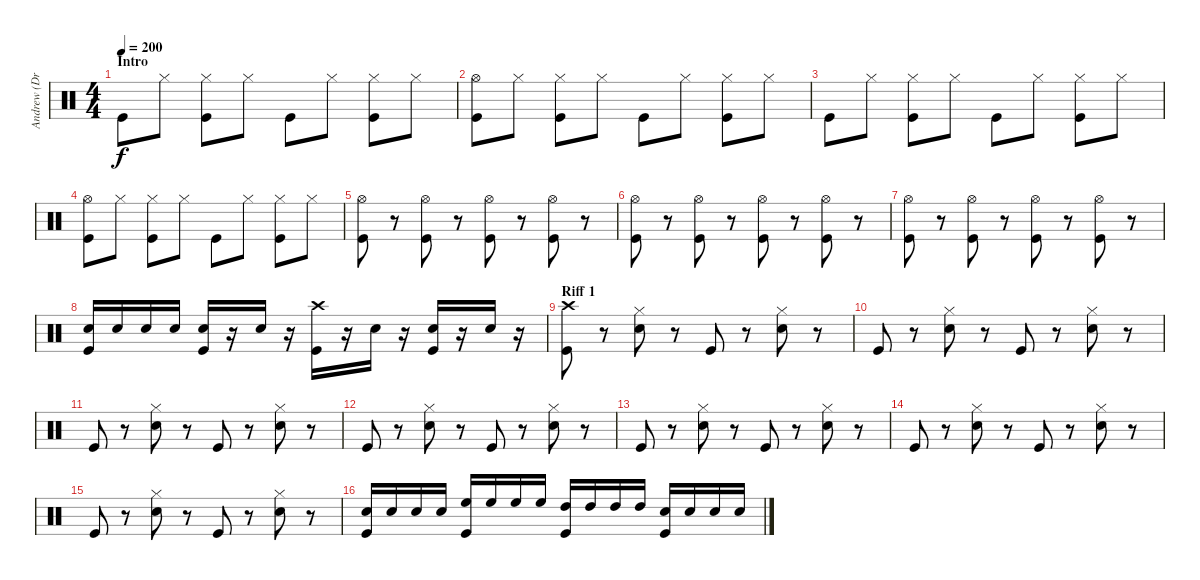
\track ("Andrew (Drums)" "Andrew (Dr") {instrument percussion}
\staff {score}
\articulation defaults
\ts (4 4)
\section ("" "Intro")
\tempo 200
\clef neutral
\ks c "Kick (hit)".8{dy f} "Hi-Hat (closed)".8
("Kick (hit)" "Hi-Hat (closed)").8 "Hi-Hat (closed)".8 "Kick (hit)".8 "Hi-Hat (closed)".8 ("Kick (hit)" "Hi-Hat (closed)").8 "Hi-Hat (closed)".8 |
("Kick (hit)" "Hi-Hat (open)").8 "Hi-Hat (closed)".8 ("Kick (hit)" "Hi-Hat (closed)").8 "Hi-Hat (closed)".8 "Kick (hit)".8 "Hi-Hat (closed)".8 ("Kick (hit)" "Hi-Hat (closed)").8 "Hi-Hat (closed)".8 |
"Kick (hit)".8 "Hi-Hat (closed)".8 ("Kick (hit)" "Hi-Hat (closed)").8 "Hi-Hat (closed)".8 "Kick (hit)".8 "Hi-Hat (closed)".8 ("Kick (hit)" "Hi-Hat (closed)").8 "Hi-Hat (closed)".8 |
("Kick (hit)" "Hi-Hat (open)").8 "Hi-Hat (closed)".8 ("Kick (hit)" "Hi-Hat (closed)").8 "Hi-Hat (closed)".8 "Kick (hit)".8 "Hi-Hat (closed)".8 ("Kick (hit)" "Hi-Hat (closed)").8 "Hi-Hat (closed)".8 |
("Kick (hit)" "Hi-Hat (open)").8 r.8 ("Kick (hit)" "Hi-Hat (open)").8 r.8 ("Kick (hit)" "Hi-Hat (open)").8 r.8 ("Kick (hit)" "Hi-Hat (open)").8 r.8 |
("Kick (hit)" "Hi-Hat (open)").8 r.8 ("Kick (hit)" "Hi-Hat (open)").8 r.8 ("Kick (hit)" "Hi-Hat (open)").8 r.8 ("Kick (hit)" "Hi-Hat (open)").8 r.8 |
("Kick (hit)" "Hi-Hat (open)").8 r.8 ("Kick (hit)" "Hi-Hat (open)").8 r.8 ("Kick (hit)" "Hi-Hat (open)").8 r.8 ("Kick (hit)" "Hi-Hat (open)").8 r.8 |
("Kick (hit)" "Snare (hit) 2").16 "Snare (hit) 2".16 "Snare (hit) 2".16 "Snare (hit) 2".16 ("Kick (hit)" "Snare (hit) 2").16 r.16 "Snare (hit) 2".16 r.16 ("Kick (hit)" "Crash high (hit)").16 r.16 "Snare (hit) 2".16 r.16 ("Kick (hit)" "Snare (hit) 2").16 r.16 "Snare (hit) 2".16 r.16 |
\section ("" "Riff 1")
("Kick (hit)" "Crash high (hit)").8 r.8 ("Snare (hit) 2" "Hi-Hat (closed)").8 r.8 "Kick (hit)".8 r.8 ("Snare (hit) 2" "Hi-Hat (closed)").8 r.8 |
"Kick (hit)".8 r.8 ("Snare (hit) 2" "Hi-Hat (closed)").8 r.8 "Kick (hit)".8 r.8 ("Snare (hit) 2" "Hi-Hat (closed)").8 r.8 |
"Kick (hit)".8 r.8 ("Snare (hit) 2" "Hi-Hat (closed)").8 r.8 "Kick (hit)".8 r.8 ("Snare (hit) 2" "Hi-Hat (closed)").8 r.8 |
"Kick (hit)".8 r.8 ("Snare (hit) 2" "Hi-Hat (closed)").8 r.8 "Kick (hit)".8 r.8 ("Snare (hit) 2" "Hi-Hat (closed)").8 r.8 |
"Kick (hit)".8 r.8 ("Snare (hit) 2" "Hi-Hat (closed)").8 r.8 "Kick (hit)".8 r.8 ("Snare (hit) 2" "Hi-Hat (closed)").8 r.8 |
"Kick (hit)".8 r.8 ("Snare (hit) 2" "Hi-Hat (closed)").8 r.8 "Kick (hit)".8 r.8 ("Snare (hit) 2" "Hi-Hat (closed)").8 r.8 |
"Kick (hit)".8 r.8 ("Snare (hit) 2" "Hi-Hat (closed)").8 r.8 "Kick (hit)".8 r.8 ("Snare (hit) 2" "Hi-Hat (closed)").8 r.8 |
("Kick (hit)" "Snare (hit) 2").16 "Snare (hit) 2".16 "Snare (hit) 2".16 "Snare (hit) 2".16 ("Kick (hit)" "High Floor Tom (hit)").16 "High Floor Tom (hit)".16 "High Floor Tom (hit)".16 "High Floor Tom (hit)".16 ("Kick (hit)" "High Tom (hit)").16 "High Tom (hit)".16 "High Tom (hit)".16 "High Tom (hit)".16 ("Kick (hit)" "Snare (hit) 2").16 "Snare (hit) 2".16 "Snare (hit) 2".16 "Snare (hit) 2".16
